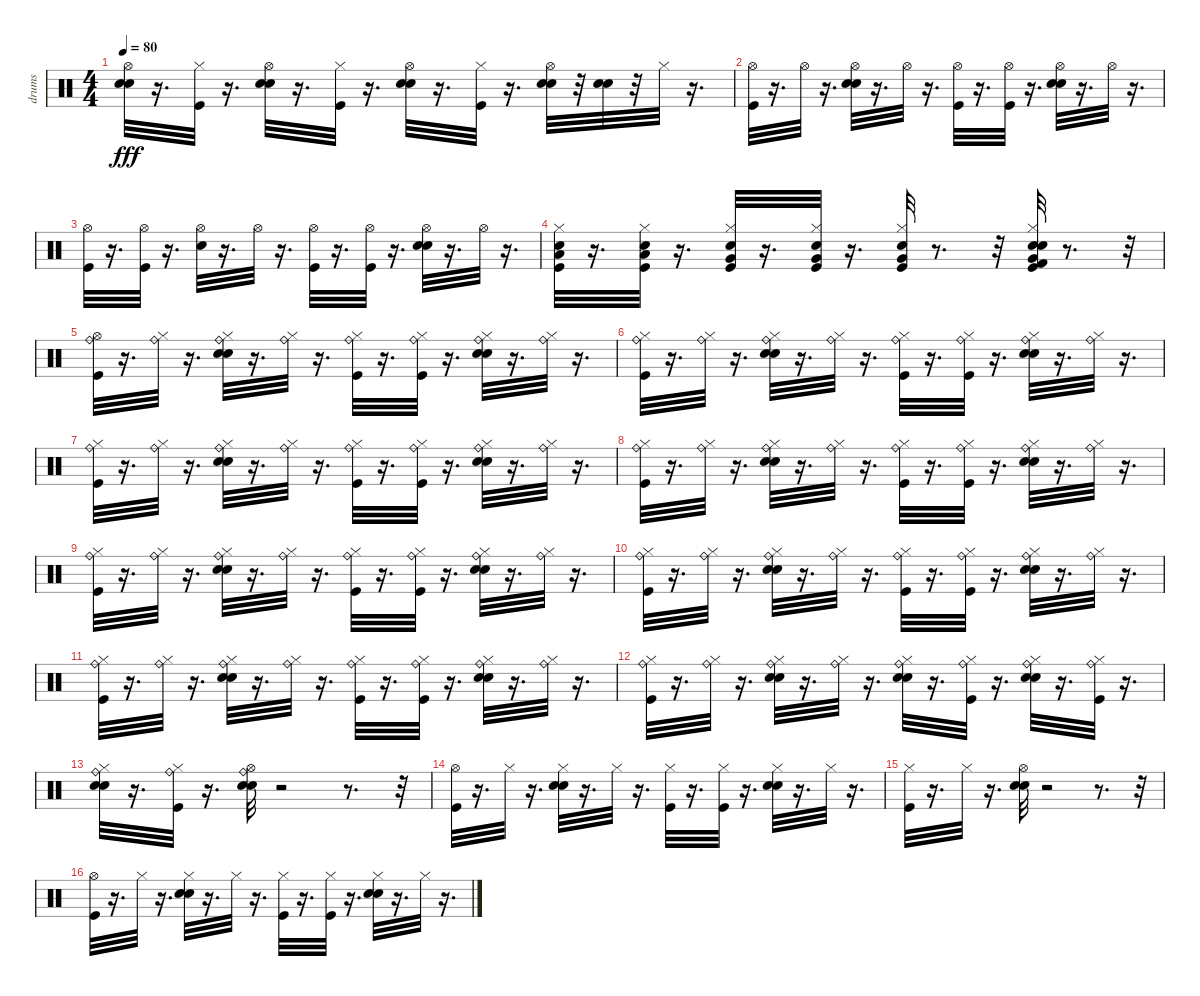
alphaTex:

\track ("drums" "drums") {instrument percussion}
\staff {score}
\articulation defaults
\ts (4 4)
\tempo 80
\clef neutral
\ks c
("Hi-Hat (open)" "Snare (hit) 2" "Electric Snare (hit)").32{dy fff} r.16{d} ("Hi-Hat (closed)" "Kick (hit)").32 r.16{d} ("Snare (hit) 2" "Electric Snare (hit)" "Hi-Hat (open)").32 r.16{d} ("Hi-Hat (closed)" "Kick (hit)").32 r.16{d} ("Hi-Hat (open)" "Snare (hit) 2" "Electric Snare (hit)").32 r.16{d} ("Hi-Hat (closed)" "Kick (hit)").32 r.16{d} ("Hi-Hat (open)" "Snare (hit) 2" "Electric Snare (hit)").32 r.32 ("Electric Snare (hit)" "Snare (hit) 2").32 r.32 "Hi-Hat (closed)".32 r.16{d} |
("Kick (hit)" "Hi-Hat (open)").32 r.16{d} "Hi-Hat (open)".32 r.16{d} ("Hi-Hat (open)" "Snare (hit) 2" "Electric Snare (hit)").32 r.16{d} "Hi-Hat (open)".32 r.16{d} ("Hi-Hat (open)" "Kick (hit)").32 r.16{d} ("Hi-Hat (open)" "Kick (hit)").32 r.16{d} ("Hi-Hat (open)" "Snare (hit) 2" "Electric Snare (hit)").32 r.16{d} "Hi-Hat (open)".32 r.16{d} |
("Kick (hit)" "Hi-Hat (open)").32 r.16{d} ("Kick (hit)" "Hi-Hat (open)").32 r.16{d} ("Snare (hit) 2" "Hi-Hat (open)").32 r.16{d} "Hi-Hat (open)".32 r.16{d} ("Kick (hit)" "Hi-Hat (open)").32 r.16{d} ("Kick (hit)" "Hi-Hat (open)").32 r.16{d} ("Snare (hit) 2" "Electric Snare (hit)" "Hi-Hat (open)").32 r.16{d} "Hi-Hat (open)".32 r.16{d} |
("Hi-Hat (closed)" "Snare (hit) 2" "Low Tom (hit)" "Kick (hit)").32 r.16{d} ("Hi-Hat (closed)" "Snare (hit) 2" "Low Tom (hit)" "Kick (hit)").32 r.16{d} ("Hi-Hat (closed)" "Snare (hit) 2" "Very Low Tom (hit)" "Kick (hit)").32 r.16{d} ("Hi-Hat (closed)" "Snare (hit) 2" "Very Low Tom (hit)" "Kick (hit)").32 r.16{d} ("Hi-Hat (closed)" "Snare (hit) 2" "Very Low Tom (hit)" "Kick (hit)").32 r.8{d} r.32 ("Hi-Hat (closed)" "Snare (hit) 2" "Very Low Tom (hit)" "Electric Snare (hit)" "Kick (hit)" "Kick (hit) 2").32 r.8{d} r.32 |
("Kick (hit)" "Ride (bell)" "Hi-Hat (open)").32 r.16{d} ("Ride (bell)" "Hi-Hat (closed)").32 r.16{d} ("Ride (bell)" "Snare (hit) 2" "Electric Snare (hit)" "Hi-Hat (closed)").32 r.16{d} ("Ride (bell)" "Hi-Hat (closed)").32 r.16{d} ("Ride (bell)" "Kick (hit)" "Hi-Hat (closed)").32 r.16{d} ("Ride (bell)" "Kick (hit)" "Hi-Hat (closed)").32 r.16{d} ("Ride (bell)" "Snare (hit) 2" "Electric Snare (hit)" "Hi-Hat (closed)").32 r.16{d} ("Ride (bell)" "Hi-Hat (closed)").32 r.16{d} |
("Kick (hit)" "Ride (bell)" "Hi-Hat (closed)").32 r.16{d} ("Ride (bell)" "Hi-Hat (closed)").32 r.16{d} ("Ride (bell)" "Snare (hit) 2" "Electric Snare (hit)" "Hi-Hat (closed)").32 r.16{d} ("Ride (bell)" "Hi-Hat (closed)").32 r.16{d} ("Ride (bell)" "Kick (hit)" "Hi-Hat (closed)").32 r.16{d} ("Ride (bell)" "Kick (hit)" "Hi-Hat (closed)").32 r.16{d} ("Ride (bell)" "Snare (hit) 2" "Electric Snare (hit)" "Hi-Hat (closed)").32 r.16{d} ("Ride (bell)" "Hi-Hat (closed)").32 r.16{d} |
("Hi-Hat (closed)" "Ride (bell)" "Kick (hit)").32 r.16{d} ("Ride (bell)" "Hi-Hat (closed)").32 r.16{d} ("Ride (bell)" "Snare (hit) 2" "Electric Snare (hit)" "Hi-Hat (closed)").32 r.16{d} ("Ride (bell)" "Hi-Hat (closed)").32 r.16{d} ("Ride (bell)" "Kick (hit)" "Hi-Hat (closed)").32 r.16{d} ("Ride (bell)" "Kick (hit)" "Hi-Hat (closed)").32 r.16{d} ("Ride (bell)" "Snare (hit) 2" "Electric Snare (hit)" "Hi-Hat (closed)").32 r.16{d} ("Ride (bell)" "Hi-Hat (closed)").32 r.16{d} |
("Hi-Hat (closed)" "Ride (bell)" "Kick (hit)").32 r.16{d} ("Ride (bell)" "Hi-Hat (closed)").32 r.16{d} ("Ride (bell)" "Snare (hit) 2" "Electric Snare (hit)" "Hi-Hat (closed)").32 r.16{d} ("Ride (bell)" "Hi-Hat (closed)").32 r.16{d} ("Ride (bell)" "Kick (hit)" "Hi-Hat (closed)").32 r.16{d} ("Ride (bell)" "Kick (hit)" "Hi-Hat (closed)").32 r.16{d} ("Ride (bell)" "Snare (hit) 2" "Electric Snare (hit)" "Hi-Hat (closed)").32 r.16{d} ("Ride (bell)" "Hi-Hat (closed)").32 r.16{d} |
("Kick (hit)" "Ride (bell)" "Hi-Hat (closed)").32 r.16{d} ("Ride (bell)" "Hi-Hat (closed)").32 r.16{d} ("Ride (bell)" "Snare (hit) 2" "Electric Snare (hit)" "Hi-Hat (closed)").32 r.16{d} ("Ride (bell)" "Hi-Hat (closed)").32 r.16{d} ("Ride (bell)" "Kick (hit)" "Hi-Hat (closed)").32 r.16{d} ("Ride (bell)" "Kick (hit)" "Hi-Hat (closed)").32 r.16{d} ("Ride (bell)" "Snare (hit) 2" "Electric Snare (hit)" "Hi-Hat (closed)").32 r.16{d} ("Ride (bell)" "Hi-Hat (closed)").32 r.16{d} |
("Hi-Hat (closed)" "Ride (bell)" "Kick (hit)").32 r.16{d} ("Ride (bell)" "Hi-Hat (closed)").32 r.16{d} ("Ride (bell)" "Snare (hit) 2" "Electric Snare (hit)" "Hi-Hat (closed)").32 r.16{d} ("Ride (bell)" "Hi-Hat (closed)").32 r.16{d} ("Ride (bell)" "Kick (hit)" "Hi-Hat (closed)").32 r.16{d} ("Ride (bell)" "Kick (hit)" "Hi-Hat (closed)").32 r.16{d} ("Ride (bell)" "Snare (hit) 2" "Electric Snare (hit)" "Hi-Hat (closed)").32 r.16{d} ("Ride (bell)" "Hi-Hat (closed)").32 r.16{d} |
("Kick (hit)" "Ride (bell)" "Hi-Hat (closed)").32 r.16{d} ("Ride (bell)" "Hi-Hat (closed)").32 r.16{d} ("Ride (bell)" "Snare (hit) 2" "Electric Snare (hit)" "Hi-Hat (closed)").32 r.16{d} ("Ride (bell)" "Hi-Hat (closed)").32 r.16{d} ("Ride (bell)" "Kick (hit)" "Hi-Hat (closed)").32 r.16{d} ("Ride (bell)" "Kick (hit)" "Hi-Hat (closed)").32 r.16{d} ("Ride (bell)" "Snare (hit) 2" "Electric Snare (hit)" "Hi-Hat (closed)").32 r.16{d} ("Ride (bell)" "Hi-Hat (closed)").32 r.16{d} |
("Hi-Hat (closed)" "Ride (bell)" "Kick (hit)").32 r.16{d} ("Ride (bell)" "Hi-Hat (closed)").32 r.16{d} ("Ride (bell)" "Snare (hit) 2" "Electric Snare (hit)" "Hi-Hat (closed)").32 r.16{d} ("Ride (bell)" "Hi-Hat (closed)").32 r.16{d} ("Ride (bell)" "Hi-Hat (closed)" "Snare (hit) 2" "Electric Snare (hit)").32 r.16{d} ("Ride (bell)" "Kick (hit)" "Hi-Hat (closed)").32 r.16{d} ("Ride (bell)" "Snare (hit) 2" "Electric Snare (hit)" "Hi-Hat (closed)").32 r.16{d} ("Ride (bell)" "Hi-Hat (closed)" "Kick (hit)").32 r.16{d} |
("Snare (hit) 2" "Electric Snare (hit)" "Hi-Hat (closed)" "Ride (bell)").32 r.16{d} ("Kick (hit)" "Hi-Hat (closed)" "Ride (bell)").32 r.16{d} ("Snare (hit) 2" "Electric Snare (hit)" "Hi-Hat (open)" "Ride (bell)").32 r.2 r.8{d} r.32 |
("Kick (hit)" "Hi-Hat (open)").32 r.16{d} "Hi-Hat (closed)".32 r.16{d} ("Snare (hit) 2" "Electric Snare (hit)" "Hi-Hat (closed)").32 r.16{d} "Hi-Hat (closed)".32 r.16{d} ("Kick (hit)" "Hi-Hat (closed)").32 r.16{d} ("Kick (hit)" "Hi-Hat (closed)").32 r.16{d} ("Snare (hit) 2" "Electric Snare (hit)" "Hi-Hat (closed)").32 r.16{d} "Hi-Hat (closed)".32 r.16{d} |
("Kick (hit)" "Hi-Hat (closed)").32 r.16{d} "Hi-Hat (closed)".32 r.16{d} ("Snare (hit) 2" "Electric Snare (hit)" "Hi-Hat (open)").32 r.2 r.8{d} r.32 |
("Hi-Hat (open)" "Kick (hit)").32 r.16{d} "Hi-Hat (closed)".32 r.16{d} ("Snare (hit) 2" "Electric Snare (hit)" "Hi-Hat (closed)").32 r.16{d} "Hi-Hat (closed)".32 r.16{d} ("Kick (hit)" "Hi-Hat (closed)").32 r.16{d} ("Kick (hit)" "Hi-Hat (closed)").32 r.16{d} ("Snare (hit) 2" "Electric Snare (hit)" "Hi-Hat (closed)").32 r.16{d} "Hi-Hat (closed)".32 r.16{d}
